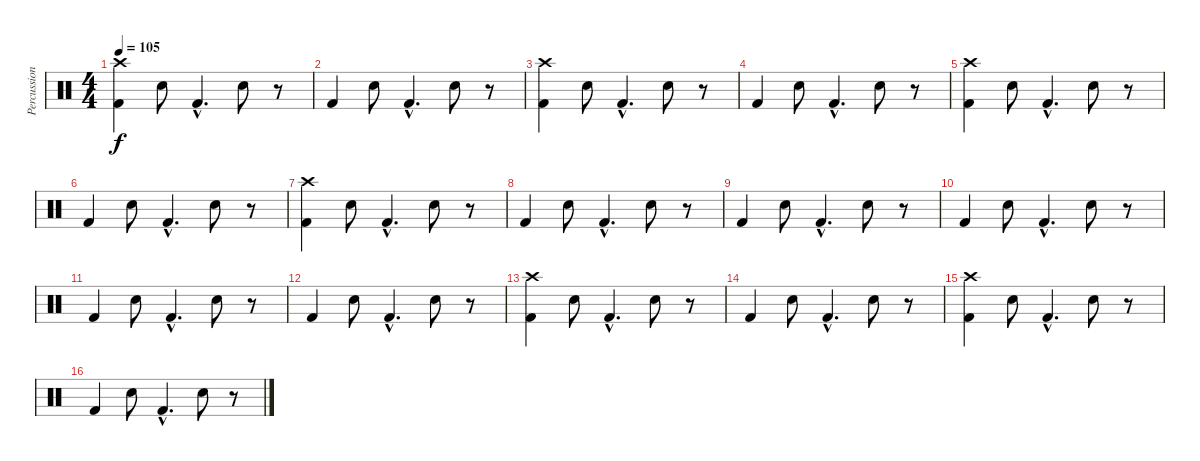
\track ("Percussion" "Percussion") {instrument percussion}
\staff {score}
\articulation defaults
\ts (4 4)
\tempo 105
\clef neutral
\ks c
("Crash high (hit)" "Kick (hit) 2").4{dy f} "Hand Clap (hit)".8 "Kick (hit) 2"{hac}.4{d} "Hand Clap (hit)".8 r.8 |
"Kick (hit) 2".4 "Hand Clap (hit)".8 "Kick (hit) 2"{hac}.4{d} "Hand Clap (hit)".8 r.8 |
("Crash high (hit)" "Kick (hit) 2").4 "Hand Clap (hit)".8 "Kick (hit) 2"{hac}.4{d} "Hand Clap (hit)".8 r.8 |
"Kick (hit) 2".4 "Hand Clap (hit)".8 "Kick (hit) 2"{hac}.4{d} "Hand Clap (hit)".8 r.8 |
("Crash high (hit)" "Kick (hit) 2").4 "Hand Clap (hit)".8 "Kick (hit) 2"{hac}.4{d} "Hand Clap (hit)".8 r.8 |
"Kick (hit) 2".4 "Hand Clap (hit)".8 "Kick (hit) 2"{hac}.4{d} "Hand Clap (hit)".8 r.8 |
("Crash high (hit)" "Kick (hit) 2").4 "Hand Clap (hit)".8 "Kick (hit) 2"{hac}.4{d} "Hand Clap (hit)".8 r.8 |
"Kick (hit) 2".4 "Hand Clap (hit)".8 "Kick (hit) 2"{hac}.4{d} "Hand Clap (hit)".8 r.8 |
"Kick (hit) 2".4 "Hand Clap (hit)".8 "Kick (hit) 2"{hac}.4{d} "Hand Clap (hit)".8 r.8 |
"Kick (hit) 2".4 "Hand Clap (hit)".8 "Kick (hit) 2"{hac}.4{d} "Hand Clap (hit)".8 r.8 |
"Kick (hit) 2".4 "Hand Clap (hit)".8 "Kick (hit) 2"{hac}.4{d} "Hand Clap (hit)".8 r.8 |
"Kick (hit) 2".4 "Hand Clap (hit)".8 "Kick (hit) 2"{hac}.4{d} "Hand Clap (hit)".8 r.8 |
("Crash high (hit)" "Kick (hit) 2").4 "Hand Clap (hit)".8 "Kick (hit) 2"{hac}.4{d} "Hand Clap (hit)".8 r.8 |
"Kick (hit) 2".4 "Hand Clap (hit)".8 "Kick (hit) 2"{hac}.4{d} "Hand Clap (hit)".8 r.8 |
("Crash high (hit)" "Kick (hit) 2").4 "Hand Clap (hit)".8 "Kick (hit) 2"{hac}.4{d} "Hand Clap (hit)".8 r.8 |
"Kick (hit) 2".4 "Hand Clap (hit)".8 "Kick (hit) 2"{hac}.4{d} "Hand Clap (hit)".8 r.8
